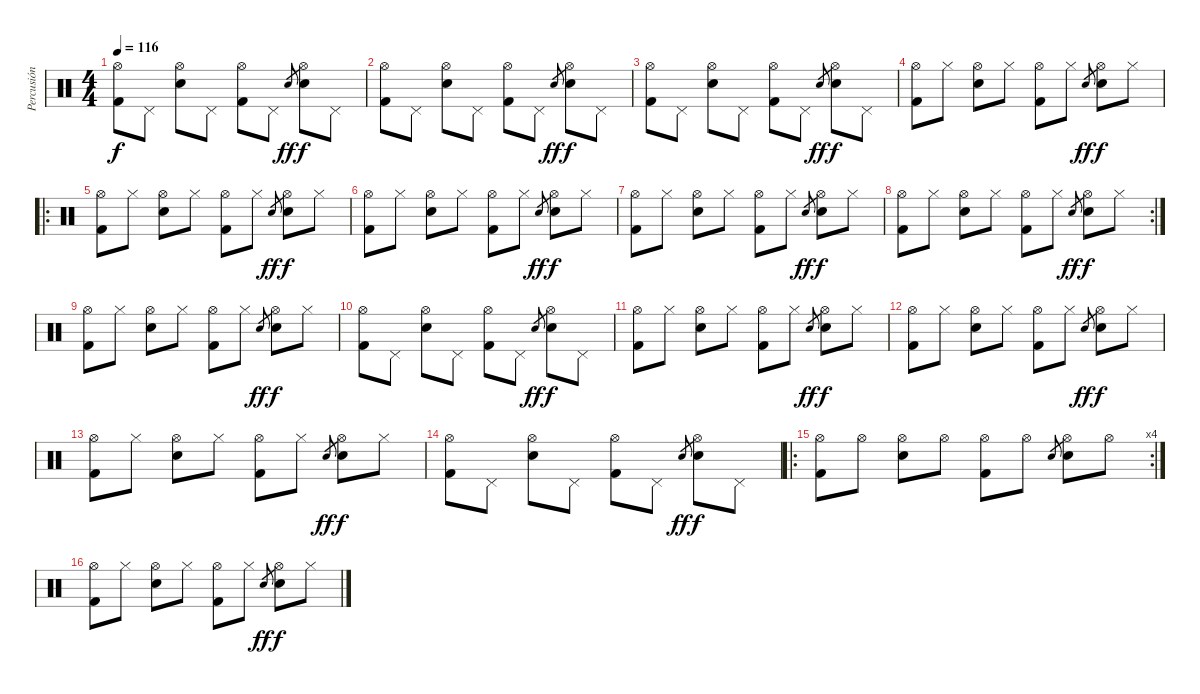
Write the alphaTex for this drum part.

\track ("Percusión" "Percusión") {instrument percussion}
\staff {score}
\articulation defaults
\ts (4 4)
\tempo 116
\clef neutral
\ks c
("Hi-Hat (open)" "Kick (hit) 2").8{dy f} "Pedal Hi-Hat (hit)".8 ("Hi-Hat (open)" "Electric Snare (hit)").8 "Pedal Hi-Hat (hit)".8 ("Hi-Hat (open)" "Kick (hit) 2").8 "Pedal Hi-Hat (hit)".8 "Electric Snare (hit)".8{gr dy ff} ("Hi-Hat (open)" "Electric Snare (hit)").8{dy f} "Pedal Hi-Hat (hit)".8 |
("Hi-Hat (open)" "Kick (hit) 2").8 "Pedal Hi-Hat (hit)".8 ("Hi-Hat (open)" "Electric Snare (hit)").8 "Pedal Hi-Hat (hit)".8 ("Hi-Hat (open)" "Kick (hit) 2").8 "Pedal Hi-Hat (hit)".8 "Electric Snare (hit)".8{gr dy ff} ("Hi-Hat (open)" "Electric Snare (hit)").8{dy f} "Pedal Hi-Hat (hit)".8 |
("Hi-Hat (open)" "Kick (hit) 2").8 "Pedal Hi-Hat (hit)".8 ("Hi-Hat (open)" "Electric Snare (hit)").8 "Pedal Hi-Hat (hit)".8 ("Hi-Hat (open)" "Kick (hit) 2").8 "Pedal Hi-Hat (hit)".8 "Electric Snare (hit)".8{gr dy ff} ("Hi-Hat (open)" "Electric Snare (hit)").8{dy f} "Pedal Hi-Hat (hit)".8 |
("Hi-Hat (open)" "Kick (hit) 2").8 "Hi-Hat (closed)".8 ("Hi-Hat (open)" "Electric Snare (hit)").8 "Hi-Hat (closed)".8 ("Hi-Hat (open)" "Kick (hit) 2").8 "Hi-Hat (closed)".8 "Electric Snare (hit)".8{gr dy ff} ("Hi-Hat (open)" "Electric Snare (hit)").8{dy f} "Hi-Hat (closed)".8 |
\ro
("Hi-Hat (open)" "Kick (hit) 2").8 "Hi-Hat (closed)".8 ("Hi-Hat (open)" "Electric Snare (hit)").8 "Hi-Hat (closed)".8 ("Hi-Hat (open)" "Kick (hit) 2").8 "Hi-Hat (closed)".8 "Electric Snare (hit)".8{gr dy ff} ("Hi-Hat (open)" "Electric Snare (hit)").8{dy f} "Hi-Hat (closed)".8 |
("Hi-Hat (open)" "Kick (hit) 2").8 "Hi-Hat (closed)".8 ("Hi-Hat (open)" "Electric Snare (hit)").8 "Hi-Hat (closed)".8 ("Hi-Hat (open)" "Kick (hit) 2").8 "Hi-Hat (closed)".8 "Electric Snare (hit)".8{gr dy ff} ("Hi-Hat (open)" "Electric Snare (hit)").8{dy f} "Hi-Hat (closed)".8 |
("Hi-Hat (open)" "Kick (hit) 2").8 "Hi-Hat (closed)".8 ("Hi-Hat (open)" "Electric Snare (hit)").8 "Hi-Hat (closed)".8 ("Hi-Hat (open)" "Kick (hit) 2").8 "Hi-Hat (closed)".8 "Electric Snare (hit)".8{gr dy ff} ("Hi-Hat (open)" "Electric Snare (hit)").8{dy f} "Hi-Hat (closed)".8 |
\rc 2
("Hi-Hat (open)" "Kick (hit) 2").8 "Hi-Hat (closed)".8 ("Hi-Hat (open)" "Electric Snare (hit)").8 "Hi-Hat (closed)".8 ("Hi-Hat (open)" "Kick (hit) 2").8 "Hi-Hat (closed)".8 "Electric Snare (hit)".8{gr dy ff} ("Hi-Hat (open)" "Electric Snare (hit)").8{dy f} "Hi-Hat (closed)".8 |
("Hi-Hat (open)" "Kick (hit) 2").8 "Hi-Hat (closed)".8 ("Hi-Hat (open)" "Electric Snare (hit)").8 "Hi-Hat (closed)".8 ("Hi-Hat (open)" "Kick (hit) 2").8 "Hi-Hat (closed)".8 "Electric Snare (hit)".8{gr dy ff} ("Hi-Hat (open)" "Electric Snare (hit)").8{dy f} "Hi-Hat (closed)".8 |
("Hi-Hat (open)" "Kick (hit) 2").8 "Pedal Hi-Hat (hit)".8 ("Hi-Hat (open)" "Electric Snare (hit)").8 "Pedal Hi-Hat (hit)".8 ("Hi-Hat (open)" "Kick (hit) 2").8 "Pedal Hi-Hat (hit)".8 "Electric Snare (hit)".8{gr dy ff} ("Hi-Hat (open)" "Electric Snare (hit)").8{dy f} "Pedal Hi-Hat (hit)".8 |
("Hi-Hat (open)" "Kick (hit) 2").8 "Hi-Hat (closed)".8 ("Hi-Hat (open)" "Electric Snare (hit)").8 "Hi-Hat (closed)".8 ("Hi-Hat (open)" "Kick (hit) 2").8 "Hi-Hat (closed)".8 "Electric Snare (hit)".8{gr dy ff} ("Hi-Hat (open)" "Electric Snare (hit)").8{dy f} "Hi-Hat (closed)".8 |
("Hi-Hat (open)" "Kick (hit) 2").8 "Hi-Hat (closed)".8 ("Hi-Hat (open)" "Electric Snare (hit)").8 "Hi-Hat (closed)".8 ("Hi-Hat (open)" "Kick (hit) 2").8 "Hi-Hat (closed)".8 "Electric Snare (hit)".8{gr dy ff} ("Hi-Hat (open)" "Electric Snare (hit)").8{dy f} "Hi-Hat (closed)".8 |
("Hi-Hat (open)" "Kick (hit) 2").8 "Hi-Hat (closed)".8 ("Hi-Hat (open)" "Electric Snare (hit)").8 "Hi-Hat (closed)".8 ("Hi-Hat (open)" "Kick (hit) 2").8 "Hi-Hat (closed)".8 "Electric Snare (hit)".8{gr dy ff} ("Hi-Hat (open)" "Electric Snare (hit)").8{dy f} "Hi-Hat (closed)".8 |
("Hi-Hat (open)" "Kick (hit) 2").8 "Pedal Hi-Hat (hit)".8 ("Hi-Hat (open)" "Electric Snare (hit)").8 "Pedal Hi-Hat (hit)".8 ("Hi-Hat (open)" "Kick (hit) 2").8 "Pedal Hi-Hat (hit)".8 "Electric Snare (hit)".8{gr dy ff} ("Hi-Hat (open)" "Electric Snare (hit)").8{dy f} "Pedal Hi-Hat (hit)".8 |
\ro
\rc 4
("Hi-Hat (open)" "Kick (hit) 2").8 "Hi-Hat (open)".8 ("Hi-Hat (open)" "Electric Snare (hit)").8 "Hi-Hat (open)".8 ("Hi-Hat (open)" "Kick (hit) 2").8 "Hi-Hat (open)".8 "Electric Snare (hit)".8{gr} ("Hi-Hat (open)" "Electric Snare (hit)").8 "Hi-Hat (open)".8 |
("Hi-Hat (open)" "Kick (hit) 2").8 "Hi-Hat (closed)".8 ("Hi-Hat (open)" "Electric Snare (hit)").8 "Hi-Hat (closed)".8 ("Hi-Hat (open)" "Kick (hit) 2").8 "Hi-Hat (closed)".8 "Electric Snare (hit)".8{gr dy ff} ("Hi-Hat (open)" "Electric Snare (hit)").8{dy f} "Hi-Hat (closed)".8
